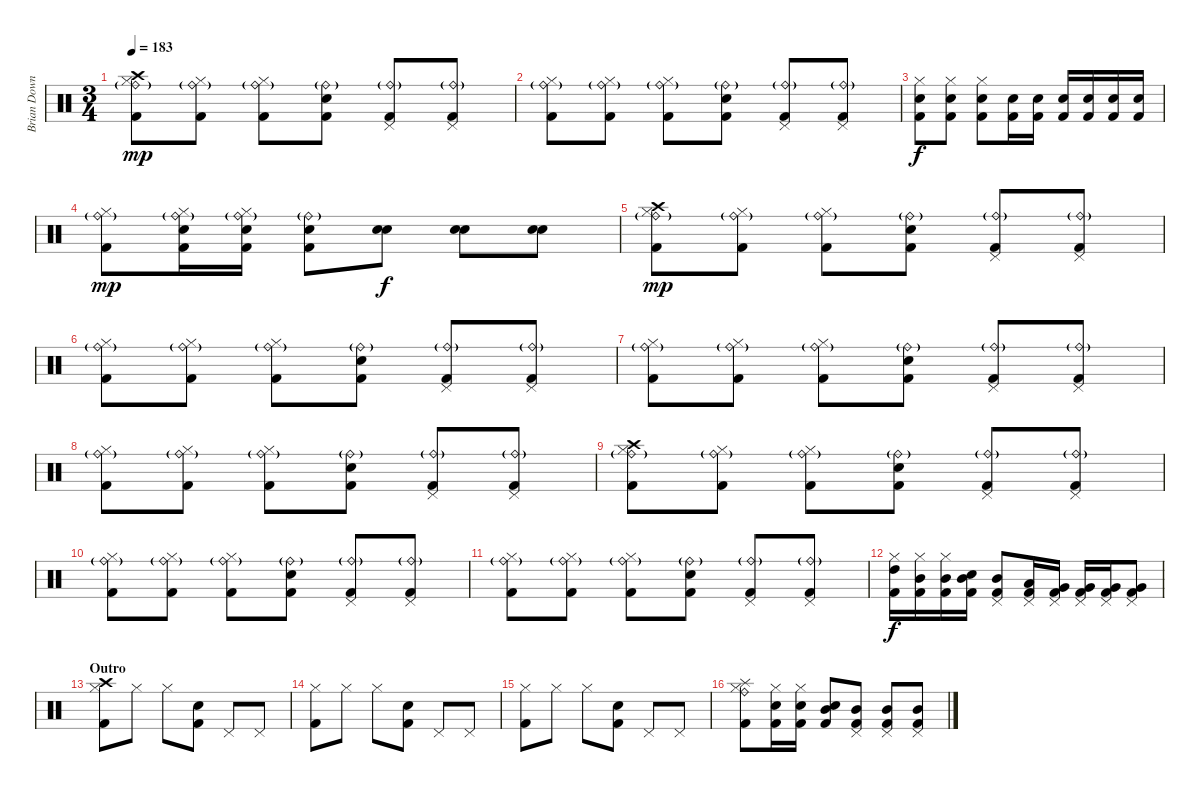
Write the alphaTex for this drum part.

\track ("Brian Downey" "Brian Down") {instrument percussion}
\staff {score}
\articulation defaults
\ts (3 4)
\tempo 183
\clef neutral
\ks c
("Crash high (hit)" "Ride (bell)"{g} "Hi-Hat (closed)" "Kick (hit) 2").8{dy mp} ("Ride (bell)"{g} "Hi-Hat (closed)" "Kick (hit) 2").8 ("Ride (bell)"{g} "Hi-Hat (closed)" "Kick (hit) 2").8 ("Ride (bell)"{g} "Snare (hit) 2" "Kick (hit) 2").8 ("Ride (bell)"{g} "Pedal Hi-Hat (hit)" "Kick (hit) 2").8 ("Ride (bell)"{g} "Pedal Hi-Hat (hit)" "Kick (hit) 2").8 |
("Ride (bell)"{g} "Hi-Hat (closed)" "Kick (hit) 2").8 ("Ride (bell)"{g} "Hi-Hat (closed)" "Kick (hit) 2").8 ("Ride (bell)"{g} "Hi-Hat (closed)" "Kick (hit) 2").8 ("Ride (bell)"{g} "Snare (hit) 2" "Kick (hit) 2").8 ("Ride (bell)"{g} "Pedal Hi-Hat (hit)" "Kick (hit) 2").8 ("Ride (bell)"{g} "Pedal Hi-Hat (hit)" "Kick (hit) 2").8 |
("Electric Snare (hit)" "Hi-Hat (closed)" "Kick (hit) 2").8{dy f} ("Electric Snare (hit)" "Hi-Hat (closed)" "Kick (hit) 2").8 ("Electric Snare (hit)" "Hi-Hat (closed)" "Kick (hit) 2").8 ("Electric Snare (hit)" "Kick (hit) 2").16 ("Electric Snare (hit)" "Kick (hit) 2").16 ("Electric Snare (hit)" "Kick (hit) 2").16 ("Electric Snare (hit)" "Kick (hit) 2").16 ("Electric Snare (hit)" "Kick (hit) 2").16 ("Electric Snare (hit)" "Kick (hit) 2").16 |
("Ride (bell)"{g} "Hi-Hat (closed)" "Kick (hit) 2").8{dy mp} ("Ride (bell)"{g} "Hi-Hat (closed)" "Kick (hit) 2" "Snare (hit) 2").16 ("Ride (bell)"{g} "Hi-Hat (closed)" "Kick (hit) 2" "Snare (hit) 2").16 ("Ride (bell)"{g} "Snare (hit) 2" "Kick (hit) 2").8 ("Electric Snare (hit)" "Electric Snare (hit)").8{dy f} ("Electric Snare (hit)" "Electric Snare (hit)").8 ("Electric Snare (hit)" "Electric Snare (hit)").8 |
("Crash high (hit)" "Ride (bell)"{g} "Hi-Hat (closed)" "Kick (hit) 2").8{dy mp} ("Ride (bell)"{g} "Hi-Hat (closed)" "Kick (hit) 2").8 ("Ride (bell)"{g} "Hi-Hat (closed)" "Kick (hit) 2").8 ("Ride (bell)"{g} "Snare (hit) 2" "Kick (hit) 2").8 ("Ride (bell)"{g} "Pedal Hi-Hat (hit)" "Kick (hit) 2").8 ("Ride (bell)"{g} "Pedal Hi-Hat (hit)" "Kick (hit) 2").8 |
("Ride (bell)"{g} "Hi-Hat (closed)" "Kick (hit) 2").8 ("Ride (bell)"{g} "Hi-Hat (closed)" "Kick (hit) 2").8 ("Ride (bell)"{g} "Hi-Hat (closed)" "Kick (hit) 2").8 ("Ride (bell)"{g} "Snare (hit) 2" "Kick (hit) 2").8 ("Ride (bell)"{g} "Pedal Hi-Hat (hit)" "Kick (hit) 2").8 ("Ride (bell)"{g} "Pedal Hi-Hat (hit)" "Kick (hit) 2").8 |
("Ride (bell)"{g} "Hi-Hat (closed)" "Kick (hit) 2").8 ("Ride (bell)"{g} "Hi-Hat (closed)" "Kick (hit) 2").8 ("Ride (bell)"{g} "Hi-Hat (closed)" "Kick (hit) 2").8 ("Ride (bell)"{g} "Snare (hit) 2" "Kick (hit) 2").8 ("Ride (bell)"{g} "Pedal Hi-Hat (hit)" "Kick (hit) 2").8 ("Ride (bell)"{g} "Pedal Hi-Hat (hit)" "Kick (hit) 2").8 |
("Ride (bell)"{g} "Hi-Hat (closed)" "Kick (hit) 2").8 ("Ride (bell)"{g} "Hi-Hat (closed)" "Kick (hit) 2").8 ("Ride (bell)"{g} "Hi-Hat (closed)" "Kick (hit) 2").8 ("Ride (bell)"{g} "Snare (hit) 2" "Kick (hit) 2").8 ("Ride (bell)"{g} "Pedal Hi-Hat (hit)" "Kick (hit) 2").8 ("Ride (bell)"{g} "Pedal Hi-Hat (hit)" "Kick (hit) 2").8 |
("Crash high (hit)" "Ride (bell)"{g} "Hi-Hat (closed)" "Kick (hit) 2").8 ("Ride (bell)"{g} "Hi-Hat (closed)" "Kick (hit) 2").8 ("Ride (bell)"{g} "Hi-Hat (closed)" "Kick (hit) 2").8 ("Ride (bell)"{g} "Snare (hit) 2" "Kick (hit) 2").8 ("Ride (bell)"{g} "Pedal Hi-Hat (hit)" "Kick (hit) 2").8 ("Ride (bell)"{g} "Pedal Hi-Hat (hit)" "Kick (hit) 2").8 |
("Ride (bell)"{g} "Hi-Hat (closed)" "Kick (hit) 2").8 ("Ride (bell)"{g} "Hi-Hat (closed)" "Kick (hit) 2").8 ("Ride (bell)"{g} "Hi-Hat (closed)" "Kick (hit) 2").8 ("Ride (bell)"{g} "Snare (hit) 2" "Kick (hit) 2").8 ("Ride (bell)"{g} "Pedal Hi-Hat (hit)" "Kick (hit) 2").8 ("Ride (bell)"{g} "Pedal Hi-Hat (hit)" "Kick (hit) 2").8 |
("Ride (bell)"{g} "Hi-Hat (closed)" "Kick (hit) 2").8 ("Ride (bell)"{g} "Hi-Hat (closed)" "Kick (hit) 2").8 ("Ride (bell)"{g} "Hi-Hat (closed)" "Kick (hit) 2").8 ("Ride (bell)"{g} "Snare (hit) 2" "Kick (hit) 2").8 ("Ride (bell)"{g} "Pedal Hi-Hat (hit)" "Kick (hit) 2").8 ("Ride (bell)"{g} "Pedal Hi-Hat (hit)" "Kick (hit) 2").8 |
("High Tom (hit)" "Hi-Hat (closed)" "Kick (hit) 2").16{dy f} ("Mid Tom (hit)" "Hi-Hat (closed)" "Kick (hit) 2").16 ("Mid Tom (hit)" "Hi-Hat (closed)" "Kick (hit) 2").16 ("Mid Tom (hit)" "Snare (hit) 2" "Kick (hit) 2").16 ("Mid Tom (hit)" "Pedal Hi-Hat (hit)" "Kick (hit) 2").8 ("Low Tom (hit)" "Pedal Hi-Hat (hit)" "Kick (hit) 2").16 ("Very Low Tom (hit)" "Pedal Hi-Hat (hit)" "Kick (hit) 2").16 ("Very Low Tom (hit)" "Pedal Hi-Hat (hit)" "Kick (hit) 2").16 ("Very Low Tom (hit)" "Pedal Hi-Hat (hit)" "Kick (hit) 2").16 ("Very Low Tom (hit)" "Pedal Hi-Hat (hit)" "Kick (hit) 2").8 |
\section ("" "Outro")
("Crash high (hit)" "Hi-Hat (closed)" "Kick (hit) 2").8 "Hi-Hat (closed)".8 "Hi-Hat (closed)".8 ("Snare (hit) 2" "Kick (hit) 2").8 "Pedal Hi-Hat (hit)".8 "Pedal Hi-Hat (hit)".8 |
("Hi-Hat (closed)" "Kick (hit) 2").8 "Hi-Hat (closed)".8 "Hi-Hat (closed)".8 ("Snare (hit) 2" "Kick (hit) 2").8 "Pedal Hi-Hat (hit)".8 "Pedal Hi-Hat (hit)".8 |
("Hi-Hat (closed)" "Kick (hit) 2").8 "Hi-Hat (closed)".8 "Hi-Hat (closed)".8 ("Snare (hit) 2" "Kick (hit) 2").8 "Pedal Hi-Hat (hit)".8 "Pedal Hi-Hat (hit)".8 |
("Ride (bell)" "Splash (hit)" "Hi-Hat (closed)" "Kick (hit) 2").8 ("Electric Snare (hit)" "Hi-Hat (closed)" "Kick (hit) 2").16 ("Electric Snare (hit)" "Hi-Hat (closed)" "Kick (hit) 2").16 ("Mid Tom (hit)" "Snare (hit) 2" "Kick (hit) 2").8 ("Mid Tom (hit)" "Pedal Hi-Hat (hit)" "Kick (hit) 2").8 ("Mid Tom (hit)" "Pedal Hi-Hat (hit)" "Kick (hit) 2").8 ("Mid Tom (hit)" "Pedal Hi-Hat (hit)" "Kick (hit) 2").8
